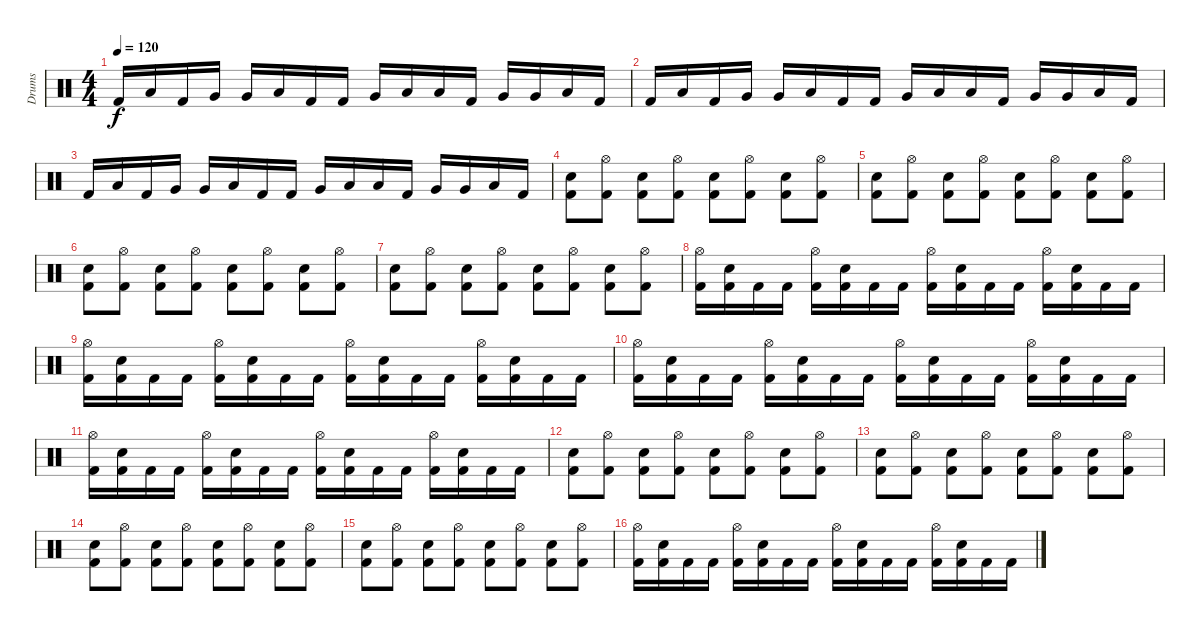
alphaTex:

\track ("Drums" "Drums") {instrument percussion}
\staff {score}
\articulation defaults
\ts (4 4)
\tempo 120
\clef neutral
\ks c "Kick (hit) 2".16{dy f} "Low Tom (hit)".16 "Kick (hit) 2".16 "Very Low Tom (hit)".16 "Very Low Tom (hit)".16 "Low Tom (hit)".16 "Kick (hit) 2".16 "Kick (hit) 2".16 "Very Low Tom (hit)".16 "Low Tom (hit)".16 "Low Tom (hit)".16 "Kick (hit) 2".16 "Very Low Tom (hit)".16 "Very Low Tom (hit)".16 "Low Tom (hit)".16 "Kick (hit) 2".16
|
"Kick (hit) 2".16 "Low Tom (hit)".16 "Kick (hit) 2".16 "Very Low Tom (hit)".16 "Very Low Tom (hit)".16 "Low Tom (hit)".16 "Kick (hit) 2".16 "Kick (hit) 2".16 "Very Low Tom (hit)".16 "Low Tom (hit)".16 "Low Tom (hit)".16 "Kick (hit) 2".16 "Very Low Tom (hit)".16 "Very Low Tom (hit)".16 "Low Tom (hit)".16 "Kick (hit) 2".16 |
"Kick (hit) 2".16 "Low Tom (hit)".16 "Kick (hit) 2".16 "Very Low Tom (hit)".16 "Very Low Tom (hit)".16 "Low Tom (hit)".16 "Kick (hit) 2".16 "Kick (hit) 2".16 "Very Low Tom (hit)".16 "Low Tom (hit)".16 "Low Tom (hit)".16 "Kick (hit) 2".16 "Very Low Tom (hit)".16 "Very Low Tom (hit)".16 "Low Tom (hit)".16 "Kick (hit) 2".16 |
("Snare (hit) 2" "Kick (hit) 2").8 ("Hi-Hat (open)" "Kick (hit) 2").8 ("Snare (hit) 2" "Kick (hit) 2").8 ("Hi-Hat (open)" "Kick (hit) 2").8 ("Snare (hit) 2" "Kick (hit) 2").8 ("Hi-Hat (open)" "Kick (hit) 2").8 ("Snare (hit) 2" "Kick (hit) 2").8 ("Hi-Hat (open)" "Kick (hit) 2").8 |
("Snare (hit) 2" "Kick (hit) 2").8 ("Hi-Hat (open)" "Kick (hit) 2").8 ("Snare (hit) 2" "Kick (hit) 2").8 ("Hi-Hat (open)" "Kick (hit) 2").8 ("Snare (hit) 2" "Kick (hit) 2").8 ("Hi-Hat (open)" "Kick (hit) 2").8 ("Snare (hit) 2" "Kick (hit) 2").8 ("Hi-Hat (open)" "Kick (hit) 2").8 |
("Snare (hit) 2" "Kick (hit) 2").8 ("Hi-Hat (open)" "Kick (hit) 2").8 ("Snare (hit) 2" "Kick (hit) 2").8 ("Hi-Hat (open)" "Kick (hit) 2").8 ("Snare (hit) 2" "Kick (hit) 2").8 ("Hi-Hat (open)" "Kick (hit) 2").8 ("Snare (hit) 2" "Kick (hit) 2").8 ("Hi-Hat (open)" "Kick (hit) 2").8 |
("Snare (hit) 2" "Kick (hit) 2").8 ("Hi-Hat (open)" "Kick (hit) 2").8 ("Snare (hit) 2" "Kick (hit) 2").8 ("Hi-Hat (open)" "Kick (hit) 2").8 ("Snare (hit) 2" "Kick (hit) 2").8 ("Hi-Hat (open)" "Kick (hit) 2").8 ("Snare (hit) 2" "Kick (hit) 2").8 ("Hi-Hat (open)" "Kick (hit) 2").8 |
("Hi-Hat (open)" "Kick (hit) 2").16 ("Snare (hit) 2" "Kick (hit) 2").16 "Kick (hit) 2".16 "Kick (hit) 2".16 ("Hi-Hat (open)" "Kick (hit) 2").16 ("Snare (hit) 2" "Kick (hit) 2").16 "Kick (hit) 2".16 "Kick (hit) 2".16 ("Hi-Hat (open)" "Kick (hit) 2").16 ("Snare (hit) 2" "Kick (hit) 2").16 "Kick (hit) 2".16 "Kick (hit) 2".16 ("Hi-Hat (open)" "Kick (hit) 2").16 ("Snare (hit) 2" "Kick (hit) 2").16 "Kick (hit) 2".16 "Kick (hit) 2".16 |
("Hi-Hat (open)" "Kick (hit) 2").16 ("Snare (hit) 2" "Kick (hit) 2").16 "Kick (hit) 2".16 "Kick (hit) 2".16 ("Hi-Hat (open)" "Kick (hit) 2").16 ("Snare (hit) 2" "Kick (hit) 2").16 "Kick (hit) 2".16 "Kick (hit) 2".16 ("Hi-Hat (open)" "Kick (hit) 2").16 ("Snare (hit) 2" "Kick (hit) 2").16 "Kick (hit) 2".16 "Kick (hit) 2".16 ("Hi-Hat (open)" "Kick (hit) 2").16 ("Snare (hit) 2" "Kick (hit) 2").16 "Kick (hit) 2".16 "Kick (hit) 2".16 |
("Hi-Hat (open)" "Kick (hit) 2").16 ("Snare (hit) 2" "Kick (hit) 2").16 "Kick (hit) 2".16 "Kick (hit) 2".16 ("Hi-Hat (open)" "Kick (hit) 2").16 ("Snare (hit) 2" "Kick (hit) 2").16 "Kick (hit) 2".16 "Kick (hit) 2".16 ("Hi-Hat (open)" "Kick (hit) 2").16 ("Snare (hit) 2" "Kick (hit) 2").16 "Kick (hit) 2".16 "Kick (hit) 2".16 ("Hi-Hat (open)" "Kick (hit) 2").16 ("Snare (hit) 2" "Kick (hit) 2").16 "Kick (hit) 2".16 "Kick (hit) 2".16 |
("Hi-Hat (open)" "Kick (hit) 2").16 ("Snare (hit) 2" "Kick (hit) 2").16 "Kick (hit) 2".16 "Kick (hit) 2".16 ("Hi-Hat (open)" "Kick (hit) 2").16 ("Snare (hit) 2" "Kick (hit) 2").16 "Kick (hit) 2".16 "Kick (hit) 2".16 ("Hi-Hat (open)" "Kick (hit) 2").16 ("Snare (hit) 2" "Kick (hit) 2").16 "Kick (hit) 2".16 "Kick (hit) 2".16 ("Hi-Hat (open)" "Kick (hit) 2").16 ("Snare (hit) 2" "Kick (hit) 2").16 "Kick (hit) 2".16 "Kick (hit) 2".16 |
("Snare (hit) 2" "Kick (hit) 2").8 ("Hi-Hat (open)" "Kick (hit) 2").8 ("Snare (hit) 2" "Kick (hit) 2").8 ("Hi-Hat (open)" "Kick (hit) 2").8 ("Snare (hit) 2" "Kick (hit) 2").8 ("Hi-Hat (open)" "Kick (hit) 2").8 ("Snare (hit) 2" "Kick (hit) 2").8 ("Hi-Hat (open)" "Kick (hit) 2").8 |
("Snare (hit) 2" "Kick (hit) 2").8 ("Hi-Hat (open)" "Kick (hit) 2").8 ("Snare (hit) 2" "Kick (hit) 2").8 ("Hi-Hat (open)" "Kick (hit) 2").8 ("Snare (hit) 2" "Kick (hit) 2").8 ("Hi-Hat (open)" "Kick (hit) 2").8 ("Snare (hit) 2" "Kick (hit) 2").8 ("Hi-Hat (open)" "Kick (hit) 2").8 |
("Snare (hit) 2" "Kick (hit) 2").8 ("Hi-Hat (open)" "Kick (hit) 2").8 ("Snare (hit) 2" "Kick (hit) 2").8 ("Hi-Hat (open)" "Kick (hit) 2").8 ("Snare (hit) 2" "Kick (hit) 2").8 ("Hi-Hat (open)" "Kick (hit) 2").8 ("Snare (hit) 2" "Kick (hit) 2").8 ("Hi-Hat (open)" "Kick (hit) 2").8 |
("Snare (hit) 2" "Kick (hit) 2").8 ("Hi-Hat (open)" "Kick (hit) 2").8 ("Snare (hit) 2" "Kick (hit) 2").8 ("Hi-Hat (open)" "Kick (hit) 2").8 ("Snare (hit) 2" "Kick (hit) 2").8 ("Hi-Hat (open)" "Kick (hit) 2").8 ("Snare (hit) 2" "Kick (hit) 2").8 ("Hi-Hat (open)" "Kick (hit) 2").8 |
("Hi-Hat (open)" "Kick (hit) 2").16 ("Snare (hit) 2" "Kick (hit) 2").16 "Kick (hit) 2".16 "Kick (hit) 2".16 ("Hi-Hat (open)" "Kick (hit) 2").16 ("Snare (hit) 2" "Kick (hit) 2").16 "Kick (hit) 2".16 "Kick (hit) 2".16 ("Hi-Hat (open)" "Kick (hit) 2").16 ("Snare (hit) 2" "Kick (hit) 2").16 "Kick (hit) 2".16 "Kick (hit) 2".16 ("Hi-Hat (open)" "Kick (hit) 2").16 ("Snare (hit) 2" "Kick (hit) 2").16 "Kick (hit) 2".16 "Kick (hit) 2".16
